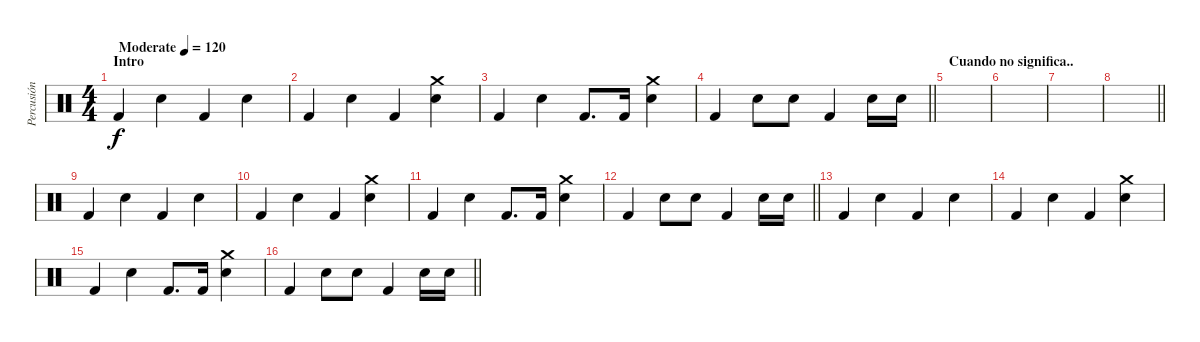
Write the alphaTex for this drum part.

\track ("Percusión" "Percusión") {instrument percussion}
\staff {score}
\articulation defaults
\ts (4 4)
\section ("" "Intro")
\tempo (120 "Moderate")
\clef neutral
\ks c "Kick (hit) 2".4{dy f} "Snare (hit) 2".4 "Kick (hit) 2".4 "Snare (hit) 2".4
|
"Kick (hit) 2".4 "Snare (hit) 2".4 "Kick (hit) 2".4 ("Snare (hit) 2" "Crash medium (hit)").4 |
"Kick (hit) 2".4 "Snare (hit) 2".4 "Kick (hit) 2".8{d} "Kick (hit) 2".16 ("Snare (hit) 2" "Crash medium (hit)").4 |
\barLineRight lightlight "Kick (hit) 2".4 "Snare (hit) 2".8 "Snare (hit) 2".8 "Kick (hit) 2".4 "Snare (hit) 2".16 "Snare (hit) 2".16
|
\section ("" "Cuando no significa..")
|
|
|
\barLineRight lightlight
|
"Kick (hit) 2".4 "Snare (hit) 2".4 "Kick (hit) 2".4 "Snare (hit) 2".4 |
"Kick (hit) 2".4 "Snare (hit) 2".4 "Kick (hit) 2".4 ("Snare (hit) 2" "Crash medium (hit)").4 |
"Kick (hit) 2".4 "Snare (hit) 2".4 "Kick (hit) 2".8{d} "Kick (hit) 2".16 ("Snare (hit) 2" "Crash medium (hit)").4 |
\barLineRight lightlight "Kick (hit) 2".4 "Snare (hit) 2".8 "Snare (hit) 2".8 "Kick (hit) 2".4 "Snare (hit) 2".16 "Snare (hit) 2".16
|
"Kick (hit) 2".4 "Snare (hit) 2".4 "Kick (hit) 2".4 "Snare (hit) 2".4 |
"Kick (hit) 2".4 "Snare (hit) 2".4 "Kick (hit) 2".4 ("Snare (hit) 2" "Crash medium (hit)").4 |
"Kick (hit) 2".4 "Snare (hit) 2".4 "Kick (hit) 2".8{d} "Kick (hit) 2".16 ("Snare (hit) 2" "Crash medium (hit)").4 |
\barLineRight lightlight "Kick (hit) 2".4 "Snare (hit) 2".8 "Snare (hit) 2".8 "Kick (hit) 2".4 "Snare (hit) 2".16 "Snare (hit) 2".16
